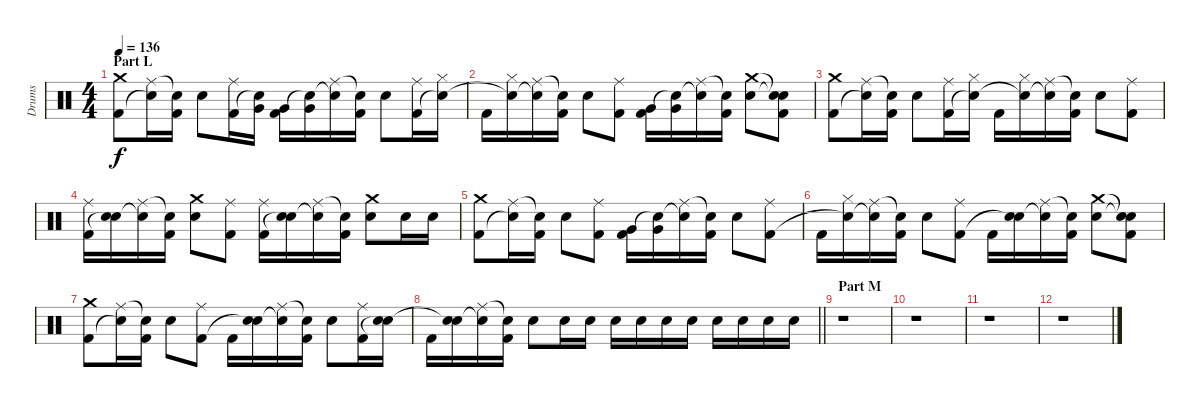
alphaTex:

\track ("Drums" "Drums") {instrument percussion}
\staff {score}
\articulation defaults
\ts (4 4)
\section ("" "Part L")
\tempo 136
\clef neutral
\ks c
("Crash medium (hit)" "Kick (hit) 2").8{dy f} ("Ride (middle)" "Snare (hit)"{t}).16 ("Snare (hit)"{t} "Kick (hit) 2").16 "Electric Snare (hit)".8 ("Ride (middle)" "Kick (hit) 2").16 ("Very Low Tom (hit)" "Snare (hit)"{t}).16 ("Very Low Tom (hit)" "Kick (hit) 2").16 ("Very Low Tom (hit)" "Snare (hit)"{t}).16 ("Ride (middle)" "Snare (hit)"{t}).16 ("Snare (hit)"{t} "Kick (hit) 2").16 "Electric Snare (hit)".8 ("Ride (middle)" "Kick (hit) 2").16 ("Hi-Hat (closed)" "Snare (hit)"{t}).16 |
"Kick (hit) 2".16 ("Hi-Hat (closed)" "Snare (hit)"{t}).16 ("Ride (middle)" "Snare (hit)"{t}).16 ("Snare (hit)"{t} "Kick (hit) 2").16 "Electric Snare (hit)".8 ("Ride (middle)" "Kick (hit) 2").8 ("Very Low Tom (hit)" "Kick (hit) 2").16 ("Very Low Tom (hit)" "Snare (hit)"{t}).16 ("Ride (middle)" "Snare (hit)"{t}).16 ("Snare (hit)"{t} "Kick (hit) 2").16 ("Crash medium (hit)" "Electric Snare (hit)").8 ("Snare (hit)"{t} "Snare (hit)"{t} "Kick (hit) 2").8 |
("Crash medium (hit)" "Kick (hit) 2").8 ("Ride (middle)" "Snare (hit)"{t}).16 ("Snare (hit)"{t} "Kick (hit) 2").16 "Electric Snare (hit)".8 ("Ride (middle)" "Kick (hit) 2").16 ("Hi-Hat (closed)" "Snare (hit)"{t}).16 "Kick (hit) 2".16 ("Hi-Hat (closed)" "Snare (hit)"{t}).16 ("Ride (middle)" "Snare (hit)"{t}).16 ("Snare (hit)"{t} "Kick (hit) 2").16 "Electric Snare (hit)".8 ("Ride (middle)" "Kick (hit) 2").8 |
("Ride (middle)" "Kick (hit) 2").16 ("Electric Snare (hit)" "Snare (hit)"{t}).16 ("Ride (middle)" "Snare (hit)"{t}).16 ("Snare (hit)"{t} "Kick (hit) 2").16 ("Crash medium (hit)" "Electric Snare (hit)").8 ("Ride (middle)" "Kick (hit) 2").8 ("Ride (middle)" "Kick (hit) 2").16 ("Electric Snare (hit)" "Snare (hit)"{t}).16 ("Ride (middle)" "Snare (hit)"{t}).16 ("Snare (hit)"{t} "Kick (hit) 2").16 ("Crash medium (hit)" "Electric Snare (hit)").8 "Electric Snare (hit)".16 "Electric Snare (hit)".16 |
("Crash medium (hit)" "Kick (hit) 2").8 ("Ride (middle)" "Snare (hit)"{t}).16 ("Snare (hit)"{t} "Kick (hit) 2").16 "Electric Snare (hit)".8 ("Ride (middle)" "Kick (hit) 2").8 ("Very Low Tom (hit)" "Kick (hit) 2").16 ("Very Low Tom (hit)" "Snare (hit)"{t}).16 ("Ride (middle)" "Snare (hit)"{t}).16 ("Snare (hit)"{t} "Kick (hit) 2").16 "Electric Snare (hit)".8 ("Ride (middle)" "Kick (hit) 2").8 |
"Kick (hit) 2".16 ("Hi-Hat (closed)" "Snare (hit)"{t}).16 ("Ride (middle)" "Snare (hit)"{t}).16 ("Snare (hit)"{t} "Kick (hit) 2").16 "Electric Snare (hit)".8 ("Ride (middle)" "Kick (hit) 2").8 "Kick (hit) 2".16 ("Electric Snare (hit)" "Snare (hit)"{t}).16 ("Ride (middle)" "Snare (hit)"{t}).16 ("Snare (hit)"{t} "Kick (hit) 2").16 ("Crash medium (hit)" "Electric Snare (hit)").8 ("Snare (hit)"{t} "Snare (hit)"{t} "Kick (hit) 2").8 |
("Crash medium (hit)" "Kick (hit) 2").8 ("Ride (middle)" "Snare (hit)"{t}).16 ("Snare (hit)"{t} "Kick (hit) 2").16 "Electric Snare (hit)".8 ("Ride (middle)" "Kick (hit) 2").8 "Kick (hit) 2".16 ("Electric Snare (hit)" "Snare (hit)"{t}).16 ("Ride (middle)" "Snare (hit)"{t}).16 ("Snare (hit)"{t} "Kick (hit) 2").16 "Electric Snare (hit)".8 ("Ride (middle)" "Kick (hit) 2").16 ("Electric Snare (hit)" "Snare (hit)"{t}).16 |
\barLineRight lightlight "Kick (hit) 2".16
("Electric Snare (hit)" "Snare (hit)"{t}).16 ("Ride (middle)" "Snare (hit)"{t}).16 ("Snare (hit)"{t} "Kick (hit) 2").16 "Electric Snare (hit)".8 "Electric Snare (hit)".16 "Electric Snare (hit)".16 "Electric Snare (hit)".16 "Electric Snare (hit)".16 "Electric Snare (hit)".16 "Electric Snare (hit)".16 "Electric Snare (hit)".16 "Electric Snare (hit)".16 "Electric Snare (hit)".16 "Electric Snare (hit)".16 |
\section ("" "Part M")
r.1 |
r.1 |
r.1 |
r.1
